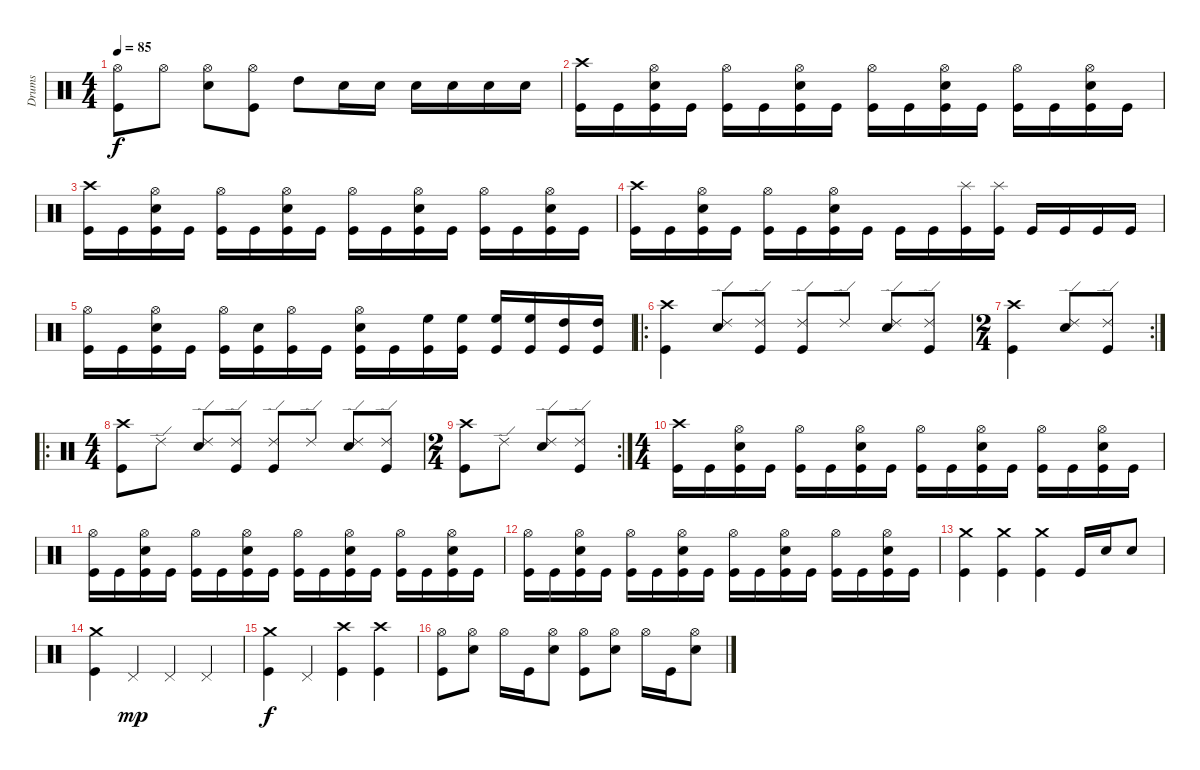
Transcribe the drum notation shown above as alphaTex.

\track ("Drums" "Drums") {instrument percussion}
\staff {score}
\articulation defaults
\ts (4 4)
\tempo 85
\clef neutral
\ks c
("Hi-Hat (open)" "Kick (hit)").8{dy f} "Hi-Hat (open)".8 ("Hi-Hat (open)" "Snare (hit) 2").8 ("Hi-Hat (open)" "Kick (hit)").8 "High Tom (hit)".8 "Snare (hit) 2".16 "Snare (hit) 2".16 "Snare (hit) 2".16 "Snare (hit) 2".16 "Snare (hit) 2".16 "Snare (hit) 2".16 |
("Crash high (hit)" "Kick (hit)").16 "Kick (hit)".16 ("Hi-Hat (open)" "Snare (hit) 2" "Kick (hit)").16 "Kick (hit)".16 ("Hi-Hat (open)" "Kick (hit)").16 "Kick (hit)".16 ("Hi-Hat (open)" "Snare (hit) 2" "Kick (hit)").16 "Kick (hit)".16 ("Hi-Hat (open)" "Kick (hit)").16 "Kick (hit)".16 ("Hi-Hat (open)" "Snare (hit) 2" "Kick (hit)").16 "Kick (hit)".16 ("Hi-Hat (open)" "Kick (hit)").16 "Kick (hit)".16 ("Hi-Hat (open)" "Snare (hit) 2" "Kick (hit)").16 "Kick (hit)".16 |
("Crash high (hit)" "Kick (hit)").16 "Kick (hit)".16 ("Hi-Hat (open)" "Snare (hit) 2" "Kick (hit)").16 "Kick (hit)".16 ("Hi-Hat (open)" "Kick (hit)").16 "Kick (hit)".16 ("Hi-Hat (open)" "Snare (hit) 2" "Kick (hit)").16 "Kick (hit)".16 ("Hi-Hat (open)" "Kick (hit)").16 "Kick (hit)".16 ("Hi-Hat (open)" "Snare (hit) 2" "Kick (hit)").16 "Kick (hit)".16 ("Hi-Hat (open)" "Kick (hit)").16 "Kick (hit)".16 ("Hi-Hat (open)" "Snare (hit) 2" "Kick (hit)").16 "Kick (hit)".16 |
("Crash high (hit)" "Kick (hit)").16 "Kick (hit)".16 ("Hi-Hat (open)" "Snare (hit) 2" "Kick (hit)").16 "Kick (hit)".16 ("Hi-Hat (open)" "Kick (hit)").16 "Kick (hit)".16 ("Hi-Hat (open)" "Snare (hit) 2" "Kick (hit)").16 "Kick (hit)".16 "Kick (hit)".16 "Kick (hit)".16 ("Splash (hit)" "Kick (hit)").16 ("Splash (hit)" "Kick (hit)").16 "Kick (hit)".16 "Kick (hit)".16 "Kick (hit)".16 "Kick (hit)".16 |
("Hi-Hat (open)" "Kick (hit)").16 "Kick (hit)".16 ("Hi-Hat (open)" "Snare (hit) 2" "Kick (hit)").16 "Kick (hit)".16 ("Hi-Hat (open)" "Kick (hit)").16 ("Snare (hit) 2" "Kick (hit)").16 ("Hi-Hat (open)" "Kick (hit)").16 "Kick (hit)".16 ("Hi-Hat (open)" "Snare (hit) 2" "Kick (hit)").16 "Kick (hit)".16 ("High Floor Tom (hit)" "Kick (hit)").16 ("High Floor Tom (hit)" "Kick (hit)").16 ("High Floor Tom (hit)" "Kick (hit)").16 ("High Floor Tom (hit)" "Kick (hit)").16 ("High Tom (hit)" "Kick (hit)").16 ("High Tom (hit)" "Kick (hit)").16 |
\ro
("Crash high (hit)" "Kick (hit)").4 ("Ride (edge) 2" "Snare (hit) 2").8 ("Ride (edge) 2" "Kick (hit)").8 ("Ride (edge) 2" "Kick (hit)").8 "Ride (edge) 2".8 ("Ride (edge) 2" "Snare (hit) 2").8 ("Ride (edge) 2" "Kick (hit)").8 |
\rc 2
\ts (2 4)
("Crash high (hit)" "Kick (hit)").4 ("Ride (edge) 2" "Snare (hit) 2").8 ("Ride (edge) 2" "Kick (hit)").8 |
\ro
\ts (4 4)
("Crash high (hit)" "Kick (hit)").8 "Ride (edge) 2".8 ("Ride (edge) 2" "Snare (hit) 2").8 ("Ride (edge) 2" "Kick (hit)").8 ("Ride (edge) 2" "Kick (hit)").8 "Ride (edge) 2".8 ("Ride (edge) 2" "Snare (hit) 2").8 ("Ride (edge) 2" "Kick (hit)").8 |
\rc 2
\ts (2 4)
("Crash high (hit)" "Kick (hit)").8 "Ride (edge) 2".8 ("Ride (edge) 2" "Snare (hit) 2").8 ("Ride (edge) 2" "Kick (hit)").8 |
\ts (4 4)
("Crash high (hit)" "Kick (hit)").16 "Kick (hit)".16 ("Hi-Hat (open)" "Snare (hit) 2" "Kick (hit)").16 "Kick (hit)".16 ("Hi-Hat (open)" "Kick (hit)").16 "Kick (hit)".16 ("Hi-Hat (open)" "Snare (hit) 2" "Kick (hit)").16 "Kick (hit)".16 ("Hi-Hat (open)" "Kick (hit)").16 "Kick (hit)".16 ("Hi-Hat (open)" "Snare (hit) 2" "Kick (hit)").16 "Kick (hit)".16 ("Hi-Hat (open)" "Kick (hit)").16 "Kick (hit)".16 ("Hi-Hat (open)" "Snare (hit) 2" "Kick (hit)").16 "Kick (hit)".16 |
("Hi-Hat (open)" "Kick (hit)").16 "Kick (hit)".16 ("Hi-Hat (open)" "Snare (hit) 2" "Kick (hit)").16 "Kick (hit)".16 ("Hi-Hat (open)" "Kick (hit)").16 "Kick (hit)".16 ("Hi-Hat (open)" "Snare (hit) 2" "Kick (hit)").16 "Kick (hit)".16 ("Hi-Hat (open)" "Kick (hit)").16 "Kick (hit)".16 ("Hi-Hat (open)" "Snare (hit) 2" "Kick (hit)").16 "Kick (hit)".16 ("Hi-Hat (open)" "Kick (hit)").16 "Kick (hit)".16 ("Hi-Hat (open)" "Snare (hit) 2" "Kick (hit)").16 "Kick (hit)".16 |
("Hi-Hat (open)" "Kick (hit)").16 "Kick (hit)".16 ("Hi-Hat (open)" "Snare (hit) 2" "Kick (hit)").16 "Kick (hit)".16 ("Hi-Hat (open)" "Kick (hit)").16 "Kick (hit)".16 ("Hi-Hat (open)" "Snare (hit) 2" "Kick (hit)").16 "Kick (hit)".16 ("Hi-Hat (open)" "Kick (hit)").16 "Kick (hit)".16 ("Hi-Hat (open)" "Snare (hit) 2" "Kick (hit)").16 "Kick (hit)".16 ("Hi-Hat (open)" "Kick (hit)").16 "Kick (hit)".16 ("Hi-Hat (open)" "Snare (hit) 2" "Kick (hit)").16 "Kick (hit)".16 |
("Crash medium (hit)" "Kick (hit)").4 ("Crash medium (hit)" "Kick (hit)").4 ("Crash medium (hit)" "Kick (hit)").4 "Kick (hit)".16 "Snare (hit) 2".16 "Snare (hit) 2".8 |
("Crash medium (hit)" "Kick (hit)").4 "Pedal Hi-Hat (hit)".4{dy mp} "Pedal Hi-Hat (hit)".4 "Pedal Hi-Hat (hit)".4 |
("Crash medium (hit)" "Kick (hit)").4{dy f} "Pedal Hi-Hat (hit)".4 ("Crash high (hit)" "Kick (hit)").4 ("Crash high (hit)" "Kick (hit)").4 |
("Hi-Hat (open)" "Kick (hit)").8 ("Hi-Hat (open)" "Snare (hit) 2").8 "Hi-Hat (open)".16 "Kick (hit)".16 ("Hi-Hat (open)" "Snare (hit) 2").8 ("Hi-Hat (open)" "Kick (hit)").8 ("Hi-Hat (open)" "Snare (hit) 2").8 "Hi-Hat (open)".16 "Kick (hit)".16 ("Hi-Hat (open)" "Snare (hit) 2").8
